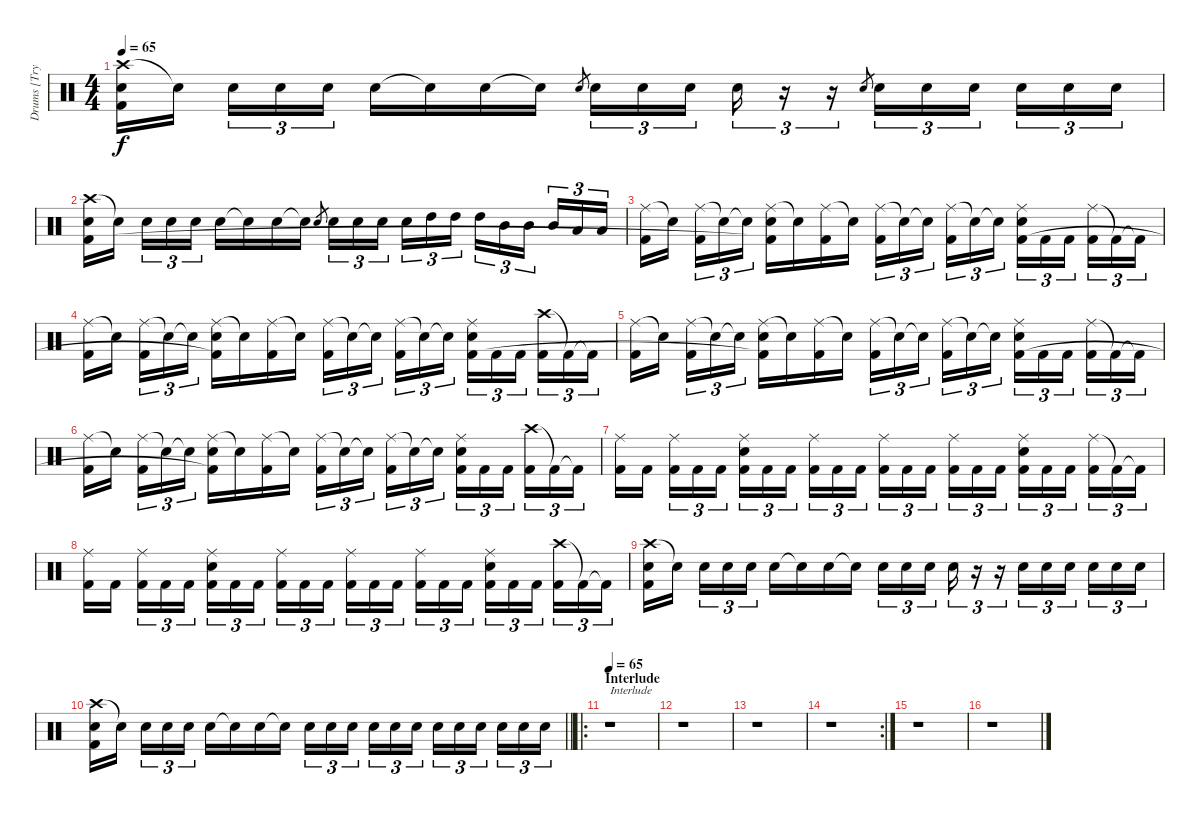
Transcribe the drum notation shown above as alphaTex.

\track ("Drums [Trym]" "Drums [Try") {instrument percussion}
\staff {score}
\articulation defaults
\ts (4 4)
\tempo 65
\clef neutral
\ks c
("Crash high (hit)" "Electric Snare (hit)" "Kick (hit) 2").16{dy f} "Snare (hit)"{t}.16{beam splitsecondary} "Electric Snare (hit)".16{tu (3 2)} "Electric Snare (hit)".16{tu (3 2)} "Electric Snare (hit)".16{tu (3 2)} "Electric Snare (hit)".16 "Snare (hit)"{t}.16 "Electric Snare (hit)".16 "Snare (hit)"{t}.16 "Electric Snare (hit)"{h}.8{gr} "Electric Snare (hit)".16{tu (3 2)} "Electric Snare (hit)".16{tu (3 2)} "Electric Snare (hit)".16{tu (3 2) beam splitsecondary} "Electric Snare (hit)".16{tu (3 2)} r.16{tu (3 2)} r.16{tu (3 2)} "Electric Snare (hit)"{h}.8{gr} "Electric Snare (hit)".16{tu (3 2)} "Electric Snare (hit)".16{tu (3 2)} "Electric Snare (hit)".16{tu (3 2) beam splitsecondary} "Electric Snare (hit)".16{tu (3 2)} "Electric Snare (hit)".16{tu (3 2)} "Electric Snare (hit)".16{tu (3 2)} |
("Crash high (hit)" "Electric Snare (hit)" "Kick (hit) 2").16 "Snare (hit)"{t}.16{beam splitsecondary} "Electric Snare (hit)".16{tu (3 2)} "Electric Snare (hit)".16{tu (3 2)} "Electric Snare (hit)".16{tu (3 2)} "Electric Snare (hit)".16 "Snare (hit)"{t}.16 "Electric Snare (hit)".16 "Snare (hit)"{t}.16 "Electric Snare (hit)"{h}.8{gr} "Electric Snare (hit)".16{tu (3 2)} "Electric Snare (hit)".16{tu (3 2)} "Electric Snare (hit)".16{tu (3 2) beam splitsecondary} "Electric Snare (hit)".16{tu (3 2)} "High Tom (hit)".16{tu (3 2)} "High Tom (hit)".16{tu (3 2)} "High Tom (hit)".16{tu (3 2)} "Mid Tom (hit)".16{tu (3 2)} "Mid Tom (hit)".16{tu (3 2) beam splitsecondary} "Mid Tom (hit)".16{tu (3 2)} "Low Tom (hit)".16{tu (3 2)} "Low Tom (hit)".16{tu (3 2)} |
("Ride (middle)" "Kick (hit) 2").16 "Snare (hit)"{t}.16{beam splitsecondary} ("Ride (middle)" "Kick (hit) 2").16{tu (3 2)} "Snare (hit)"{t}.16{tu (3 2)} "Snare (hit)"{t}.16{tu (3 2)} ("Ride (middle)" "Electric Snare (hit)" "Kick (hit) 2"{t}).16 "Snare (hit)"{t}.16 ("Ride (middle)" "Kick (hit) 2").16 "Snare (hit)"{t}.16 ("Ride (middle)" "Kick (hit) 2").16{tu (3 2)} "Snare (hit)"{t}.16{tu (3 2)} "Snare (hit)"{t}.16{tu (3 2) beam splitsecondary} ("Ride (middle)" "Kick (hit) 2").16{tu (3 2)} "Snare (hit)"{t}.16{tu (3 2)} "Snare (hit)"{t}.16{tu (3 2)} ("Ride (middle)" "Electric Snare (hit)" "Kick (hit) 2").16{tu (3 2)} "Kick (hit) 2".16{tu (3 2)} "Kick (hit) 2".16{tu (3 2) beam splitsecondary} ("Ride (middle)" "Kick (hit) 2").16{tu (3 2)} "Kick (hit) 2"{t}.16{tu (3 2)} "Kick (hit) 2"{t}.16{tu (3 2)} |
("Ride (middle)" "Kick (hit) 2").16 "Snare (hit)"{t}.16{beam splitsecondary} ("Ride (middle)" "Kick (hit) 2").16{tu (3 2)} "Snare (hit)"{t}.16{tu (3 2)} "Snare (hit)"{t}.16{tu (3 2)} ("Ride (middle)" "Electric Snare (hit)" "Kick (hit) 2"{t}).16 "Snare (hit)"{t}.16 ("Ride (middle)" "Kick (hit) 2").16 "Snare (hit)"{t}.16 ("Ride (middle)" "Kick (hit) 2").16{tu (3 2)} "Snare (hit)"{t}.16{tu (3 2)} "Snare (hit)"{t}.16{tu (3 2) beam splitsecondary} ("Ride (middle)" "Kick (hit) 2").16{tu (3 2)} "Snare (hit)"{t}.16{tu (3 2)} "Snare (hit)"{t}.16{tu (3 2)} ("Ride (middle)" "Electric Snare (hit)" "Kick (hit) 2").16{tu (3 2)} "Kick (hit) 2".16{tu (3 2)} "Kick (hit) 2".16{tu (3 2) beam splitsecondary} ("Crash high (hit)" "Kick (hit) 2").16{tu (3 2)} "Kick (hit) 2"{t}.16{tu (3 2)} "Kick (hit) 2"{t}.16{tu (3 2)} |
("Ride (middle)" "Kick (hit) 2").16 "Snare (hit)"{t}.16{beam splitsecondary} ("Ride (middle)" "Kick (hit) 2").16{tu (3 2)} "Snare (hit)"{t}.16{tu (3 2)} "Snare (hit)"{t}.16{tu (3 2)} ("Ride (middle)" "Electric Snare (hit)" "Kick (hit) 2"{t}).16 "Snare (hit)"{t}.16 ("Ride (middle)" "Kick (hit) 2").16 "Snare (hit)"{t}.16 ("Ride (middle)" "Kick (hit) 2").16{tu (3 2)} "Snare (hit)"{t}.16{tu (3 2)} "Snare (hit)"{t}.16{tu (3 2) beam splitsecondary} ("Ride (middle)" "Kick (hit) 2").16{tu (3 2)} "Snare (hit)"{t}.16{tu (3 2)} "Snare (hit)"{t}.16{tu (3 2)} ("Ride (middle)" "Electric Snare (hit)" "Kick (hit) 2").16{tu (3 2)} "Kick (hit) 2".16{tu (3 2)} "Kick (hit) 2".16{tu (3 2) beam splitsecondary} ("Ride (middle)" "Kick (hit) 2").16{tu (3 2)} "Kick (hit) 2"{t}.16{tu (3 2)} "Kick (hit) 2"{t}.16{tu (3 2)} |
("Ride (middle)" "Kick (hit) 2").16 "Snare (hit)"{t}.16{beam splitsecondary} ("Ride (middle)" "Kick (hit) 2").16{tu (3 2)} "Snare (hit)"{t}.16{tu (3 2)} "Snare (hit)"{t}.16{tu (3 2)} ("Ride (middle)" "Electric Snare (hit)" "Kick (hit) 2"{t}).16 "Snare (hit)"{t}.16 ("Ride (middle)" "Kick (hit) 2").16 "Snare (hit)"{t}.16 ("Ride (middle)" "Kick (hit) 2").16{tu (3 2)} "Snare (hit)"{t}.16{tu (3 2)} "Snare (hit)"{t}.16{tu (3 2) beam splitsecondary} ("Ride (middle)" "Kick (hit) 2").16{tu (3 2)} "Snare (hit)"{t}.16{tu (3 2)} "Snare (hit)"{t}.16{tu (3 2)} ("Ride (middle)" "Electric Snare (hit)" "Kick (hit) 2").16{tu (3 2)} "Kick (hit) 2".16{tu (3 2)} "Kick (hit) 2".16{tu (3 2) beam splitsecondary} ("Crash high (hit)" "Kick (hit) 2").16{tu (3 2)} "Kick (hit) 2"{t}.16{tu (3 2)} "Kick (hit) 2"{t}.16{tu (3 2)} |
("Ride (middle)" "Kick (hit) 2").16 "Kick (hit) 2".16{beam splitsecondary} ("Ride (middle)" "Kick (hit) 2").16{tu (3 2)} "Kick (hit) 2".16{tu (3 2)} "Kick (hit) 2".16{tu (3 2)} ("Ride (middle)" "Electric Snare (hit)" "Kick (hit) 2").16{tu (3 2)} "Kick (hit) 2".16{tu (3 2)} "Kick (hit) 2".16{tu (3 2) beam splitsecondary} ("Ride (middle)" "Kick (hit) 2").16{tu (3 2)} "Kick (hit) 2".16{tu (3 2)} "Kick (hit) 2".16{tu (3 2)} ("Ride (middle)" "Kick (hit) 2").16{tu (3 2)} "Kick (hit) 2".16{tu (3 2)} "Kick (hit) 2".16{tu (3 2) beam splitsecondary} ("Ride (middle)" "Kick (hit) 2").16{tu (3 2)} "Kick (hit) 2".16{tu (3 2)} "Kick (hit) 2".16{tu (3 2)} ("Ride (middle)" "Electric Snare (hit)" "Kick (hit) 2").16{tu (3 2)} "Kick (hit) 2".16{tu (3 2)} "Kick (hit) 2".16{tu (3 2) beam splitsecondary} ("Ride (middle)" "Kick (hit) 2").16{tu (3 2)} "Kick (hit) 2"{t}.16{tu (3 2)} "Kick (hit) 2"{t}.16{tu (3 2)} |
("Ride (middle)" "Kick (hit) 2").16 "Kick (hit) 2".16{beam splitsecondary} ("Ride (middle)" "Kick (hit) 2").16{tu (3 2)} "Kick (hit) 2".16{tu (3 2)} "Kick (hit) 2".16{tu (3 2)} ("Ride (middle)" "Electric Snare (hit)" "Kick (hit) 2").16{tu (3 2)} "Kick (hit) 2".16{tu (3 2)} "Kick (hit) 2".16{tu (3 2) beam splitsecondary} ("Ride (middle)" "Kick (hit) 2").16{tu (3 2)} "Kick (hit) 2".16{tu (3 2)} "Kick (hit) 2".16{tu (3 2)} ("Ride (middle)" "Kick (hit) 2").16{tu (3 2)} "Kick (hit) 2".16{tu (3 2)} "Kick (hit) 2".16{tu (3 2) beam splitsecondary} ("Ride (middle)" "Kick (hit) 2").16{tu (3 2)} "Kick (hit) 2".16{tu (3 2)} "Kick (hit) 2".16{tu (3 2)} ("Ride (middle)" "Electric Snare (hit)" "Kick (hit) 2").16{tu (3 2)} "Kick (hit) 2".16{tu (3 2)} "Kick (hit) 2".16{tu (3 2) beam splitsecondary} ("Crash high (hit)" "Kick (hit) 2").16{tu (3 2)} "Kick (hit) 2"{t}.16{tu (3 2)} "Kick (hit) 2"{t}.16{tu (3 2)} |
("Crash high (hit)" "Electric Snare (hit)" "Kick (hit) 2").16 "Snare (hit)"{t}.16{beam splitsecondary} "Electric Snare (hit)".16{tu (3 2)} "Electric Snare (hit)".16{tu (3 2)} "Electric Snare (hit)".16{tu (3 2)} "Electric Snare (hit)".16 "Snare (hit)"{t}.16 "Electric Snare (hit)".16 "Snare (hit)"{t}.16 "Electric Snare (hit)".16{tu (3 2)} "Electric Snare (hit)".16{tu (3 2)} "Electric Snare (hit)".16{tu (3 2) beam splitsecondary} "Electric Snare (hit)".16{tu (3 2)} r.16{tu (3 2)} r.16{tu (3 2)} "Electric Snare (hit)".16{tu (3 2)} "Electric Snare (hit)".16{tu (3 2)} "Electric Snare (hit)".16{tu (3 2) beam splitsecondary} "Electric Snare (hit)".16{tu (3 2)} "Electric Snare (hit)".16{tu (3 2)} "Electric Snare (hit)".16{tu (3 2)} |
\barLineRight lightlight
("Crash high (hit)" "Electric Snare (hit)" "Kick (hit) 2").16 "Snare (hit)"{t}.16{beam splitsecondary} "Electric Snare (hit)".16{tu (3 2)} "Electric Snare (hit)".16{tu (3 2)} "Electric Snare (hit)".16{tu (3 2)} "Electric Snare (hit)".16 "Snare (hit)"{t}.16 "Electric Snare (hit)".16 "Snare (hit)"{t}.16 "Electric Snare (hit)".16{tu (3 2)} "Electric Snare (hit)".16{tu (3 2)} "Electric Snare (hit)".16{tu (3 2) beam splitsecondary} "Electric Snare (hit)".16{tu (3 2)} "Electric Snare (hit)".16{tu (3 2)} "Electric Snare (hit)".16{tu (3 2)} "Electric Snare (hit)".16{tu (3 2)} "Electric Snare (hit)".16{tu (3 2)} "Electric Snare (hit)".16{tu (3 2) beam splitsecondary} "Electric Snare (hit)".16{tu (3 2)} "Electric Snare (hit)".16{tu (3 2)} "Electric Snare (hit)".16{tu (3 2)} |
\ro
\section ("" "Interlude")
\tempo 65
r.1{txt "Interlude"} |
r.1 |
r.1 |
\rc 2
r.1 |
r.1 |
r.1
